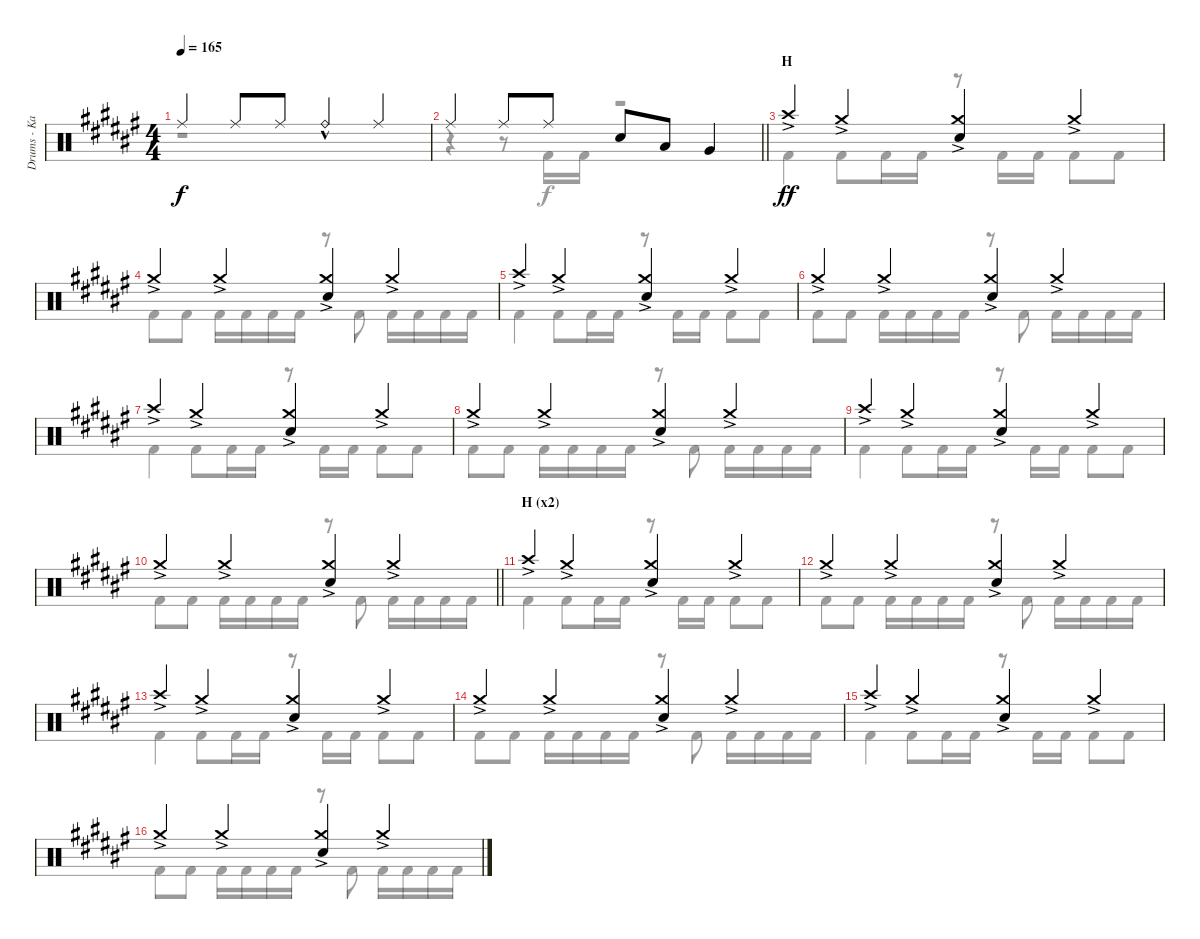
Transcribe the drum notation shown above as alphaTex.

\track ("Drums - Kai" "Drums - Ka") {instrument percussion}
\staff {score}
\articulation defaults
\voice
\ts (4 4)
\tempo 165
\clef neutral
\ks f# "Ride (middle)".4{dy f} "Ride (middle)".8 "Ride (middle)".8 "Ride (bell)"{hac}.4 "Ride (middle)".4
|
\barLineRight lightlight "Ride (middle)".4 "Ride (middle)".8 "Ride (middle)".8 "Electric Snare (hit)".8 "Low Tom (hit)".8 "Very Low Tom (hit)".4
|
\section ("" "H")
"Crash high (hit)"{ac}.4{dy ff} "Crash medium (hit)"{ac}.4 ("Crash medium (hit)"{ac} "Electric Snare (hit)").4 "Crash medium (hit)"{ac}.4 |
"Crash medium (hit)"{ac}.4 "Crash medium (hit)"{ac}.4 ("Crash medium (hit)"{ac} "Electric Snare (hit)").4 "Crash medium (hit)"{ac}.4 |
"Crash high (hit)"{ac}.4 "Crash medium (hit)"{ac}.4 ("Crash medium (hit)"{ac} "Electric Snare (hit)").4 "Crash medium (hit)"{ac}.4 |
"Crash medium (hit)"{ac}.4 "Crash medium (hit)"{ac}.4 ("Crash medium (hit)"{ac} "Electric Snare (hit)").4 "Crash medium (hit)"{ac}.4 |
"Crash high (hit)"{ac}.4 "Crash medium (hit)"{ac}.4 ("Crash medium (hit)"{ac} "Electric Snare (hit)").4 "Crash medium (hit)"{ac}.4 |
"Crash medium (hit)"{ac}.4 "Crash medium (hit)"{ac}.4 ("Crash medium (hit)"{ac} "Electric Snare (hit)").4 "Crash medium (hit)"{ac}.4 |
"Crash high (hit)"{ac}.4 "Crash medium (hit)"{ac}.4 ("Crash medium (hit)"{ac} "Electric Snare (hit)").4 "Crash medium (hit)"{ac}.4 |
\barLineRight lightlight "Crash medium (hit)"{ac}.4 "Crash medium (hit)"{ac}.4
("Crash medium (hit)"{ac} "Electric Snare (hit)").4 "Crash medium (hit)"{ac}.4 |
\section ("" "H (x2)")
"Crash high (hit)"{ac}.4 "Crash medium (hit)"{ac}.4 ("Crash medium (hit)"{ac} "Electric Snare (hit)").4 "Crash medium (hit)"{ac}.4 |
"Crash medium (hit)"{ac}.4 "Crash medium (hit)"{ac}.4 ("Crash medium (hit)"{ac} "Electric Snare (hit)").4 "Crash medium (hit)"{ac}.4 |
"Crash high (hit)"{ac}.4 "Crash medium (hit)"{ac}.4 ("Crash medium (hit)"{ac} "Electric Snare (hit)").4 "Crash medium (hit)"{ac}.4 |
"Crash medium (hit)"{ac}.4 "Crash medium (hit)"{ac}.4 ("Crash medium (hit)"{ac} "Electric Snare (hit)").4 "Crash medium (hit)"{ac}.4 |
"Crash high (hit)"{ac}.4 "Crash medium (hit)"{ac}.4 ("Crash medium (hit)"{ac} "Electric Snare (hit)").4 "Crash medium (hit)"{ac}.4 |
"Crash medium (hit)"{ac}.4 "Crash medium (hit)"{ac}.4 ("Crash medium (hit)"{ac} "Electric Snare (hit)").4 "Crash medium (hit)"{ac}.4
\voice
\clef neutral
\ottava regular
\simile none
\ks f#
r.1{dy f} |
\barLineRight lightlight
r.4 r.8 "Kick (hit) 2".16 "Kick (hit) 2".16 r.2 |
"Kick (hit) 2".4 "Kick (hit) 2".8 "Kick (hit) 2".16 "Kick (hit) 2".16 r.8 "Kick (hit) 2".16 "Kick (hit) 2".16 "Kick (hit) 2".8 "Kick (hit) 2".8 |
"Kick (hit) 2".8 "Kick (hit) 2".8 "Kick (hit) 2".16 "Kick (hit) 2".16 "Kick (hit) 2".16 "Kick (hit) 2".16 r.8 "Kick (hit) 2".8 "Kick (hit) 2".16 "Kick (hit) 2".16 "Kick (hit) 2".16 "Kick (hit) 2".16 |
"Kick (hit) 2".4 "Kick (hit) 2".8 "Kick (hit) 2".16 "Kick (hit) 2".16 r.8 "Kick (hit) 2".16 "Kick (hit) 2".16 "Kick (hit) 2".8 "Kick (hit) 2".8 |
"Kick (hit) 2".8 "Kick (hit) 2".8 "Kick (hit) 2".16 "Kick (hit) 2".16 "Kick (hit) 2".16 "Kick (hit) 2".16 r.8 "Kick (hit) 2".8 "Kick (hit) 2".16 "Kick (hit) 2".16 "Kick (hit) 2".16 "Kick (hit) 2".16 |
"Kick (hit) 2".4 "Kick (hit) 2".8 "Kick (hit) 2".16 "Kick (hit) 2".16 r.8 "Kick (hit) 2".16 "Kick (hit) 2".16 "Kick (hit) 2".8 "Kick (hit) 2".8 |
"Kick (hit) 2".8 "Kick (hit) 2".8 "Kick (hit) 2".16 "Kick (hit) 2".16 "Kick (hit) 2".16 "Kick (hit) 2".16 r.8 "Kick (hit) 2".8 "Kick (hit) 2".16 "Kick (hit) 2".16 "Kick (hit) 2".16 "Kick (hit) 2".16 |
"Kick (hit) 2".4 "Kick (hit) 2".8 "Kick (hit) 2".16 "Kick (hit) 2".16 r.8 "Kick (hit) 2".16 "Kick (hit) 2".16 "Kick (hit) 2".8 "Kick (hit) 2".8 |
\barLineRight lightlight "Kick (hit) 2".8 "Kick (hit) 2".8 "Kick (hit) 2".16 "Kick (hit) 2".16 "Kick (hit) 2".16 "Kick (hit) 2".16
r.8 "Kick (hit) 2".8 "Kick (hit) 2".16 "Kick (hit) 2".16 "Kick (hit) 2".16 "Kick (hit) 2".16 |
"Kick (hit) 2".4 "Kick (hit) 2".8 "Kick (hit) 2".16 "Kick (hit) 2".16 r.8 "Kick (hit) 2".16 "Kick (hit) 2".16 "Kick (hit) 2".8 "Kick (hit) 2".8 |
"Kick (hit) 2".8 "Kick (hit) 2".8 "Kick (hit) 2".16 "Kick (hit) 2".16 "Kick (hit) 2".16 "Kick (hit) 2".16 r.8 "Kick (hit) 2".8 "Kick (hit) 2".16 "Kick (hit) 2".16 "Kick (hit) 2".16 "Kick (hit) 2".16 |
"Kick (hit) 2".4 "Kick (hit) 2".8 "Kick (hit) 2".16 "Kick (hit) 2".16 r.8 "Kick (hit) 2".16 "Kick (hit) 2".16 "Kick (hit) 2".8 "Kick (hit) 2".8 |
"Kick (hit) 2".8 "Kick (hit) 2".8 "Kick (hit) 2".16 "Kick (hit) 2".16 "Kick (hit) 2".16 "Kick (hit) 2".16 r.8 "Kick (hit) 2".8 "Kick (hit) 2".16 "Kick (hit) 2".16 "Kick (hit) 2".16 "Kick (hit) 2".16 |
"Kick (hit) 2".4 "Kick (hit) 2".8 "Kick (hit) 2".16 "Kick (hit) 2".16 r.8 "Kick (hit) 2".16 "Kick (hit) 2".16 "Kick (hit) 2".8 "Kick (hit) 2".8 |
"Kick (hit) 2".8 "Kick (hit) 2".8 "Kick (hit) 2".16 "Kick (hit) 2".16 "Kick (hit) 2".16 "Kick (hit) 2".16 r.8 "Kick (hit) 2".8 "Kick (hit) 2".16 "Kick (hit) 2".16 "Kick (hit) 2".16 "Kick (hit) 2".16
